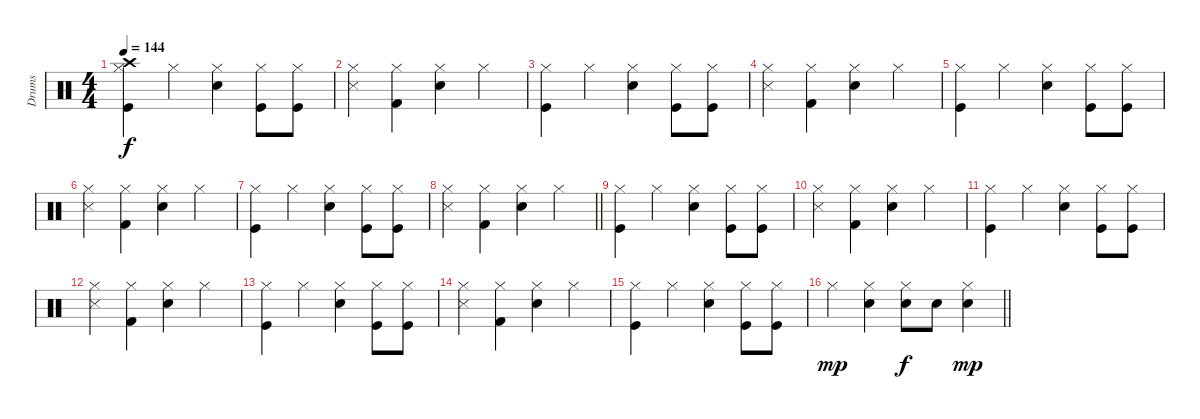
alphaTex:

\track ("Drums" "Drums") {instrument percussion}
\staff {score}
\articulation defaults
\ts (4 4)
\tempo 144
\clef neutral
\ks c
("Hi-Hat (closed)" "Crash high (hit)" "Kick (hit)").4{dy f} "Hi-Hat (closed)".4 ("Hi-Hat (closed)" "Electric Snare (hit)").4 ("Hi-Hat (closed)" "Kick (hit)").8 ("Hi-Hat (closed)" "Kick (hit)").8 |
("Hi-Hat (closed)" "Snare (side stick) 3").4 ("Hi-Hat (closed)" "Kick (hit) 2").4 ("Hi-Hat (closed)" "Electric Snare (hit)").4 "Hi-Hat (closed)".4 |
("Hi-Hat (closed)" "Kick (hit)").4 "Hi-Hat (closed)".4 ("Hi-Hat (closed)" "Electric Snare (hit)").4 ("Hi-Hat (closed)" "Kick (hit)").8 ("Hi-Hat (closed)" "Kick (hit)").8 |
("Hi-Hat (closed)" "Snare (side stick) 3").4 ("Hi-Hat (closed)" "Kick (hit) 2").4 ("Hi-Hat (closed)" "Electric Snare (hit)").4 "Hi-Hat (closed)".4 |
("Hi-Hat (closed)" "Kick (hit)").4 "Hi-Hat (closed)".4 ("Hi-Hat (closed)" "Electric Snare (hit)").4 ("Hi-Hat (closed)" "Kick (hit)").8 ("Hi-Hat (closed)" "Kick (hit)").8 |
("Hi-Hat (closed)" "Snare (side stick) 3").4 ("Hi-Hat (closed)" "Kick (hit) 2").4 ("Hi-Hat (closed)" "Electric Snare (hit)").4 "Hi-Hat (closed)".4 |
("Hi-Hat (closed)" "Kick (hit)").4 "Hi-Hat (closed)".4 ("Hi-Hat (closed)" "Electric Snare (hit)").4 ("Hi-Hat (closed)" "Kick (hit)").8 ("Hi-Hat (closed)" "Kick (hit)").8 |
\barLineRight lightlight
("Hi-Hat (closed)" "Snare (side stick) 3").4 ("Hi-Hat (closed)" "Kick (hit) 2").4 ("Hi-Hat (closed)" "Electric Snare (hit)").4 "Hi-Hat (closed)".4 |
("Hi-Hat (closed)" "Kick (hit)").4 "Hi-Hat (closed)".4 ("Hi-Hat (closed)" "Electric Snare (hit)").4 ("Hi-Hat (closed)" "Kick (hit)").8 ("Hi-Hat (closed)" "Kick (hit)").8 |
("Hi-Hat (closed)" "Snare (side stick) 3").4 ("Hi-Hat (closed)" "Kick (hit) 2").4 ("Hi-Hat (closed)" "Electric Snare (hit)").4 "Hi-Hat (closed)".4 |
("Hi-Hat (closed)" "Kick (hit)").4 "Hi-Hat (closed)".4 ("Hi-Hat (closed)" "Electric Snare (hit)").4 ("Hi-Hat (closed)" "Kick (hit)").8 ("Hi-Hat (closed)" "Kick (hit)").8 |
("Hi-Hat (closed)" "Snare (side stick) 3").4 ("Hi-Hat (closed)" "Kick (hit) 2").4 ("Hi-Hat (closed)" "Electric Snare (hit)").4 "Hi-Hat (closed)".4 |
("Hi-Hat (closed)" "Kick (hit)").4 "Hi-Hat (closed)".4 ("Hi-Hat (closed)" "Electric Snare (hit)").4 ("Hi-Hat (closed)" "Kick (hit)").8 ("Hi-Hat (closed)" "Kick (hit)").8 |
("Hi-Hat (closed)" "Snare (side stick) 3").4 ("Hi-Hat (closed)" "Kick (hit) 2").4 ("Hi-Hat (closed)" "Electric Snare (hit)").4 "Hi-Hat (closed)".4 |
("Hi-Hat (closed)" "Kick (hit)").4 "Hi-Hat (closed)".4 ("Hi-Hat (closed)" "Electric Snare (hit)").4 ("Hi-Hat (closed)" "Kick (hit)").8 ("Hi-Hat (closed)" "Kick (hit)").8 |
\barLineRight lightlight "Hi-Hat (closed)".4{dy mp}
("Hi-Hat (closed)" "Electric Snare (hit)").4 ("Hi-Hat (closed)" "Electric Snare (hit)").8{dy f} "Electric Snare (hit)".8 ("Hi-Hat (closed)" "Electric Snare (hit)").4{dy mp}
